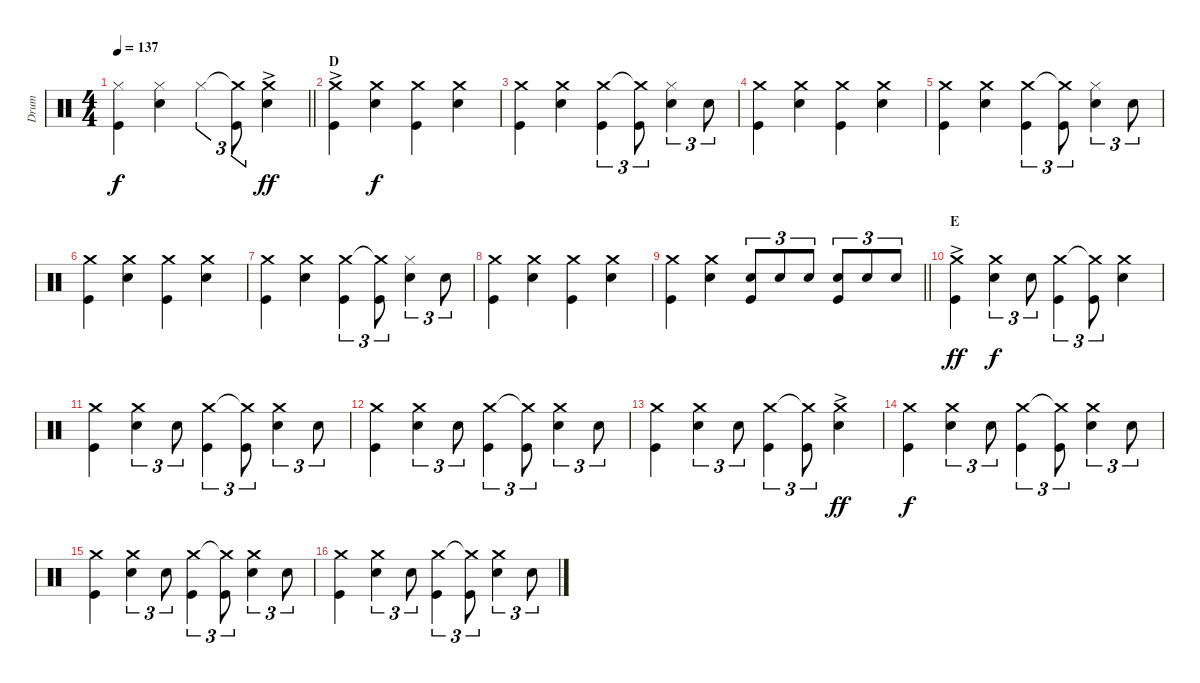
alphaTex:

\track ("Drum" "Drum") {instrument percussion}
\staff {score}
\articulation defaults
\ts (4 4)
\tempo 137
\clef neutral
\barLineRight lightlight
\ks c
("Hi-Hat (closed)" "Kick (hit)").4{dy f} ("Hi-Hat (closed)" "Snare (hit) 2").4 "Hi-Hat (closed)".4{tu (3 2)} ("Crash medium (hit)"{t} "Kick (hit)").8{tu (3 2)} ("Crash medium (hit)"{ac} "Snare (hit) 2"{ac}).4{dy ff} |
\section ("" "D")
("Crash medium (hit)"{ac} "Kick (hit)"{ac}).4 ("Crash medium (hit)" "Snare (hit) 2").4{dy f} ("Crash medium (hit)" "Kick (hit)").4 ("Crash medium (hit)" "Snare (hit) 2").4 |
("Crash medium (hit)" "Kick (hit)").4 ("Crash medium (hit)" "Snare (hit) 2").4 ("Crash medium (hit)" "Kick (hit)").4{tu (3 2)} ("Crash medium (hit)"{t} "Kick (hit)").8{tu (3 2)} ("Hi-Hat (closed)" "Snare (hit) 2").4{tu (3 2)} "Snare (hit) 2".8{tu (3 2)} |
("Crash medium (hit)" "Kick (hit)").4 ("Crash medium (hit)" "Snare (hit) 2").4 ("Crash medium (hit)" "Kick (hit)").4 ("Crash medium (hit)" "Snare (hit) 2").4 |
("Crash medium (hit)" "Kick (hit)").4 ("Crash medium (hit)" "Snare (hit) 2").4 ("Crash medium (hit)" "Kick (hit)").4{tu (3 2)} ("Crash medium (hit)"{t} "Kick (hit)").8{tu (3 2)} ("Hi-Hat (closed)" "Snare (hit) 2").4{tu (3 2)} "Snare (hit) 2".8{tu (3 2)} |
("Crash medium (hit)" "Kick (hit)").4 ("Crash medium (hit)" "Snare (hit) 2").4 ("Crash medium (hit)" "Kick (hit)").4 ("Crash medium (hit)" "Snare (hit) 2").4 |
("Crash medium (hit)" "Kick (hit)").4 ("Crash medium (hit)" "Snare (hit) 2").4 ("Crash medium (hit)" "Kick (hit)").4{tu (3 2)} ("Crash medium (hit)"{t} "Kick (hit)").8{tu (3 2)} ("Hi-Hat (closed)" "Snare (hit) 2").4{tu (3 2)} "Snare (hit) 2".8{tu (3 2)} |
("Crash medium (hit)" "Kick (hit)").4 ("Crash medium (hit)" "Snare (hit) 2").4 ("Crash medium (hit)" "Kick (hit)").4 ("Crash medium (hit)" "Snare (hit) 2").4 |
\barLineRight lightlight
("Crash medium (hit)" "Kick (hit)").4 ("Crash medium (hit)" "Snare (hit) 2").4 ("Snare (hit) 2" "Kick (hit)").8{tu (3 2)} "Snare (hit) 2".8{tu (3 2)} "Snare (hit) 2".8{tu (3 2)} ("Snare (hit) 2" "Kick (hit)").8{tu (3 2)} "Snare (hit) 2".8{tu (3 2)} "Snare (hit) 2".8{tu (3 2)} |
\section ("" "E")
("Crash medium (hit)"{ac} "Kick (hit)"{ac}).4{dy ff} ("Crash medium (hit)" "Snare (hit) 2").4{tu (3 2) dy f} "Snare (hit) 2".8{tu (3 2)} ("Crash medium (hit)" "Kick (hit)").4{tu (3 2)} ("Crash medium (hit)"{t} "Kick (hit)").8{tu (3 2)} ("Crash medium (hit)" "Snare (hit) 2").4 |
("Crash medium (hit)" "Kick (hit)").4 ("Crash medium (hit)" "Snare (hit) 2").4{tu (3 2)} "Snare (hit) 2".8{tu (3 2)} ("Crash medium (hit)" "Kick (hit)").4{tu (3 2)} ("Crash medium (hit)"{t} "Kick (hit)").8{tu (3 2)} ("Crash medium (hit)" "Snare (hit) 2").4{tu (3 2)} "Snare (hit) 2".8{tu (3 2)} |
("Crash medium (hit)" "Kick (hit)").4 ("Crash medium (hit)" "Snare (hit) 2").4{tu (3 2)} "Snare (hit) 2".8{tu (3 2)} ("Crash medium (hit)" "Kick (hit)").4{tu (3 2)} ("Crash medium (hit)"{t} "Kick (hit)").8{tu (3 2)} ("Crash medium (hit)" "Snare (hit) 2").4{tu (3 2)} "Snare (hit) 2".8{tu (3 2)} |
("Crash medium (hit)" "Kick (hit)").4 ("Crash medium (hit)" "Snare (hit) 2").4{tu (3 2)} "Snare (hit) 2".8{tu (3 2)} ("Crash medium (hit)" "Kick (hit)").4{tu (3 2)} ("Crash medium (hit)"{t} "Kick (hit)").8{tu (3 2)} ("Crash medium (hit)"{ac} "Snare (hit) 2"{ac}).4{dy ff} |
("Crash medium (hit)" "Kick (hit)").4{dy f} ("Crash medium (hit)" "Snare (hit) 2").4{tu (3 2)} "Snare (hit) 2".8{tu (3 2)} ("Crash medium (hit)" "Kick (hit)").4{tu (3 2)} ("Crash medium (hit)"{t} "Kick (hit)").8{tu (3 2)} ("Crash medium (hit)" "Snare (hit) 2").4{tu (3 2)} "Snare (hit) 2".8{tu (3 2)} |
("Crash medium (hit)" "Kick (hit)").4 ("Crash medium (hit)" "Snare (hit) 2").4{tu (3 2)} "Snare (hit) 2".8{tu (3 2)} ("Crash medium (hit)" "Kick (hit)").4{tu (3 2)} ("Crash medium (hit)"{t} "Kick (hit)").8{tu (3 2)} ("Crash medium (hit)" "Snare (hit) 2").4{tu (3 2)} "Snare (hit) 2".8{tu (3 2)} |
("Crash medium (hit)" "Kick (hit)").4 ("Crash medium (hit)" "Snare (hit) 2").4{tu (3 2)} "Snare (hit) 2".8{tu (3 2)} ("Crash medium (hit)" "Kick (hit)").4{tu (3 2)} ("Crash medium (hit)"{t} "Kick (hit)").8{tu (3 2)} ("Crash medium (hit)" "Snare (hit) 2").4{tu (3 2)} "Snare (hit) 2".8{tu (3 2)}
